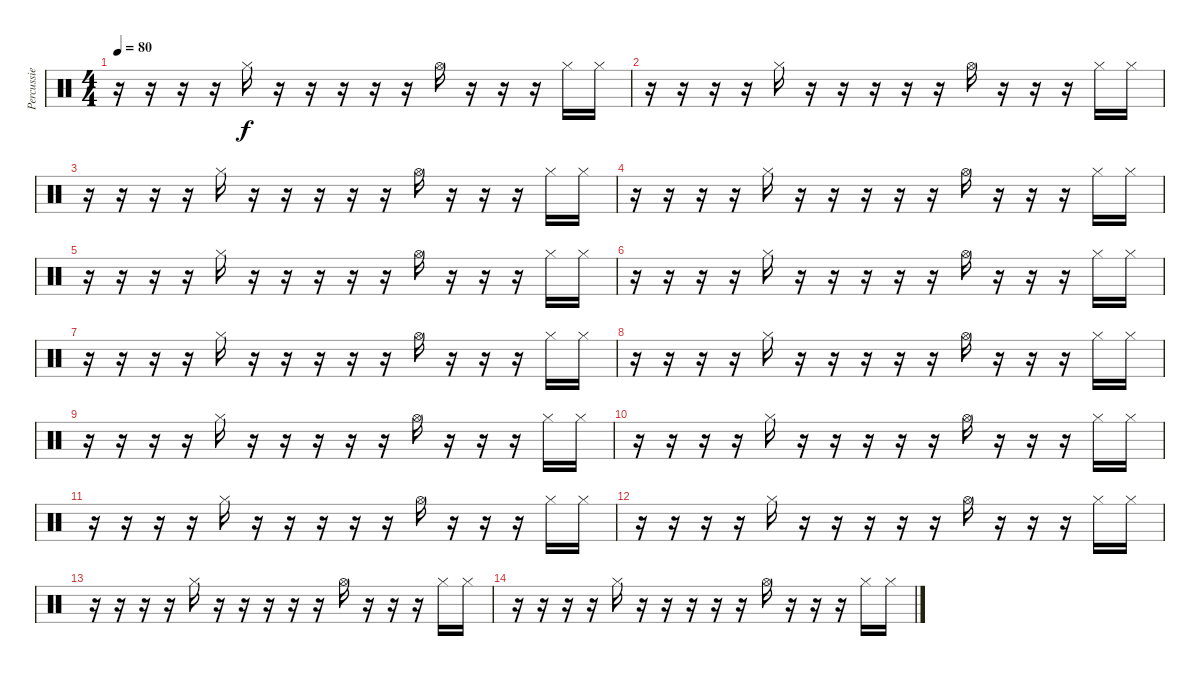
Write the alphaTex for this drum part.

\track ("Percussie" "Percussie") {instrument percussion}
\staff {score}
\articulation defaults
\ts (4 4)
\tempo 80
\clef neutral
\ks c
r.16{dy f} r.16 r.16 r.16 "Hi-Hat (closed)".16 r.16 r.16 r.16 r.16 r.16 "Hi-Hat (open)".16 r.16 r.16 r.16 "Hi-Hat (closed)".16 "Hi-Hat (closed)".16 |
r.16 r.16 r.16 r.16 "Hi-Hat (closed)".16 r.16 r.16 r.16 r.16 r.16 "Hi-Hat (open)".16 r.16 r.16 r.16 "Hi-Hat (closed)".16 "Hi-Hat (closed)".16 |
r.16 r.16 r.16 r.16 "Hi-Hat (closed)".16 r.16 r.16 r.16 r.16 r.16 "Hi-Hat (open)".16 r.16 r.16 r.16 "Hi-Hat (closed)".16 "Hi-Hat (closed)".16 |
r.16 r.16 r.16 r.16 "Hi-Hat (closed)".16 r.16 r.16 r.16 r.16 r.16 "Hi-Hat (open)".16 r.16 r.16 r.16 "Hi-Hat (closed)".16 "Hi-Hat (closed)".16 |
r.16 r.16 r.16 r.16 "Hi-Hat (closed)".16 r.16 r.16 r.16 r.16 r.16 "Hi-Hat (open)".16 r.16 r.16 r.16 "Hi-Hat (closed)".16 "Hi-Hat (closed)".16 |
r.16 r.16 r.16 r.16 "Hi-Hat (closed)".16 r.16 r.16 r.16 r.16 r.16 "Hi-Hat (open)".16 r.16 r.16 r.16 "Hi-Hat (closed)".16 "Hi-Hat (closed)".16 |
r.16 r.16 r.16 r.16 "Hi-Hat (closed)".16 r.16 r.16 r.16 r.16 r.16 "Hi-Hat (open)".16 r.16 r.16 r.16 "Hi-Hat (closed)".16 "Hi-Hat (closed)".16 |
r.16 r.16 r.16 r.16 "Hi-Hat (closed)".16 r.16 r.16 r.16 r.16 r.16 "Hi-Hat (open)".16 r.16 r.16 r.16 "Hi-Hat (closed)".16 "Hi-Hat (closed)".16 |
r.16 r.16 r.16 r.16 "Hi-Hat (closed)".16 r.16 r.16 r.16 r.16 r.16 "Hi-Hat (open)".16 r.16 r.16 r.16 "Hi-Hat (closed)".16 "Hi-Hat (closed)".16 |
r.16 r.16 r.16 r.16 "Hi-Hat (closed)".16 r.16 r.16 r.16 r.16 r.16 "Hi-Hat (open)".16 r.16 r.16 r.16 "Hi-Hat (closed)".16 "Hi-Hat (closed)".16 |
r.16 r.16 r.16 r.16 "Hi-Hat (closed)".16 r.16 r.16 r.16 r.16 r.16 "Hi-Hat (open)".16 r.16 r.16 r.16 "Hi-Hat (closed)".16 "Hi-Hat (closed)".16 |
r.16 r.16 r.16 r.16 "Hi-Hat (closed)".16 r.16 r.16 r.16 r.16 r.16 "Hi-Hat (open)".16 r.16 r.16 r.16 "Hi-Hat (closed)".16 "Hi-Hat (closed)".16 |
r.16 r.16 r.16 r.16 "Hi-Hat (closed)".16 r.16 r.16 r.16 r.16 r.16 "Hi-Hat (open)".16 r.16 r.16 r.16 "Hi-Hat (closed)".16 "Hi-Hat (closed)".16 |
r.16 r.16 r.16 r.16 "Hi-Hat (closed)".16 r.16 r.16 r.16 r.16 r.16 "Hi-Hat (open)".16 r.16 r.16 r.16 "Hi-Hat (closed)".16 "Hi-Hat (closed)".16
